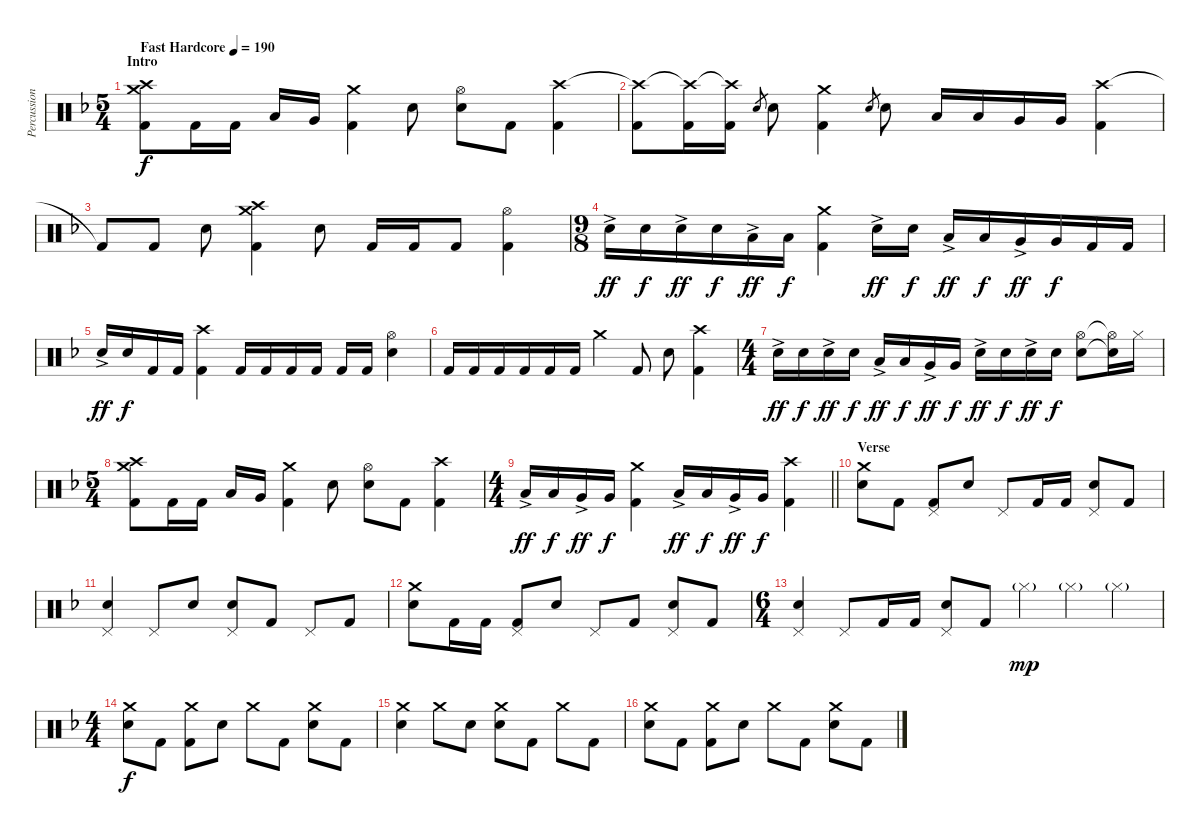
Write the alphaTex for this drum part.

\track ("Percussion" "Percussion") {instrument percussion}
\staff {score}
\articulation defaults
\ts (5 4)
\section ("" "Intro")
\tempo (190 "Fast Hardcore")
\clef neutral
\ks f
("Crash medium (hit)" "Crash high (hit)" "Kick (hit) 2").8{dy f} "Kick (hit) 2".16 "Kick (hit) 2".16 "Low Tom (hit)".16 "Very Low Tom (hit)".16 ("Crash medium (hit)" "Kick (hit) 2").4 "Electric Snare (hit)".8 ("Hi-Hat (open)" "Electric Snare (hit)").8 "Kick (hit) 2".8 ("Crash high (hit)" "Kick (hit) 2").4 |
("Crash high (hit)"{t} "Kick (hit) 2").8 ("Crash high (hit)"{t} "Kick (hit) 2").16 ("Crash high (hit)"{t} "Kick (hit) 2").16 "Electric Snare (hit)".8{gr} "Electric Snare (hit)".8 ("Crash medium (hit)" "Kick (hit) 2").4 "Electric Snare (hit)".8{gr} "Electric Snare (hit)".8 "Low Tom (hit)".16 "Low Tom (hit)".16 "Very Low Tom (hit)".16 "Very Low Tom (hit)".16 ("Crash high (hit)" "Kick (hit) 2").4 |
"Kick (hit) 2"{t}.8 "Kick (hit) 2".8 "Electric Snare (hit)".8 ("Crash medium (hit)" "Crash high (hit)" "Kick (hit) 2").4 "Electric Snare (hit)".8 "Kick (hit) 2".16 "Kick (hit) 2".16 "Kick (hit) 2".8 ("Hi-Hat (open)" "Kick (hit) 2").4 |
\ts (9 8)
"Electric Snare (hit)"{ac}.16{dy ff} "Electric Snare (hit)".16{dy f} "Electric Snare (hit)"{ac}.16{dy ff} "Electric Snare (hit)".16{dy f} "Low Tom (hit)"{ac}.16{dy ff} "Low Tom (hit)".16{dy f} ("Crash medium (hit)" "Kick (hit) 2").4 "Electric Snare (hit)"{ac}.16{dy ff} "Electric Snare (hit)".16{dy f} "Low Tom (hit)"{ac}.16{dy ff} "Low Tom (hit)".16{dy f} "Very Low Tom (hit)"{ac}.16{dy ff} "Very Low Tom (hit)".16{dy f} "Kick (hit) 2".16 "Kick (hit) 2".16 |
"Electric Snare (hit)"{ac}.16{dy ff} "Electric Snare (hit)".16{dy f} "Kick (hit) 2".16 "Kick (hit) 2".16 ("Crash high (hit)" "Kick (hit) 2").4 "Kick (hit) 2".16 "Kick (hit) 2".16 "Kick (hit) 2".16 "Kick (hit) 2".16 "Kick (hit) 2".16 "Kick (hit) 2".16 ("Hi-Hat (open)" "Electric Snare (hit)").4 |
"Kick (hit) 2".16 "Kick (hit) 2".16 "Kick (hit) 2".16 "Kick (hit) 2".16 "Kick (hit) 2".16 "Kick (hit) 2".16 "Crash medium (hit)".4 "Kick (hit) 2".8 "Electric Snare (hit)".8 ("Crash high (hit)" "Kick (hit) 2").4 |
\ts (4 4)
"Electric Snare (hit)"{ac}.16{dy ff} "Electric Snare (hit)".16{dy f} "Electric Snare (hit)"{ac}.16{dy ff} "Electric Snare (hit)".16{dy f} "Low Tom (hit)"{ac}.16{dy ff} "Low Tom (hit)".16{dy f} "Very Low Tom (hit)"{ac}.16{dy ff} "Very Low Tom (hit)".16{dy f} "Electric Snare (hit)"{ac}.16{dy ff} "Electric Snare (hit)".16{dy f} "Electric Snare (hit)"{ac}.16{dy ff} "Electric Snare (hit)".16{dy f} ("Hi-Hat (open)" "Electric Snare (hit)").8 ("Hi-Hat (open)"{t} "Electric Snare (hit)"{t}).16 "Hi-Hat (closed)".16 |
\ts (5 4)
("Crash medium (hit)" "Crash high (hit)" "Kick (hit) 2").8 "Kick (hit) 2".16 "Kick (hit) 2".16 "Low Tom (hit)".16 "Very Low Tom (hit)".16 ("Crash medium (hit)" "Kick (hit) 2").4 "Electric Snare (hit)".8 ("Hi-Hat (open)" "Electric Snare (hit)").8 "Kick (hit) 2".8 ("Crash high (hit)" "Kick (hit) 2").4 |
\ts (4 4)
\barLineRight lightlight "Low Tom (hit)"{ac}.16{dy ff} "Low Tom (hit)".16{dy f} "Very Low Tom (hit)"{ac}.16{dy ff} "Very Low Tom (hit)".16{dy f}
("Crash medium (hit)" "Kick (hit) 2").4 "Low Tom (hit)"{ac}.16{dy ff} "Low Tom (hit)".16{dy f} "Very Low Tom (hit)"{ac}.16{dy ff} "Very Low Tom (hit)".16{dy f} ("Crash high (hit)" "Kick (hit) 2").4 |
\section ("" "Verse")
("Crash medium (hit)" "Electric Snare (hit)").8 "Kick (hit) 2".8 ("Pedal Hi-Hat (hit)" "Kick (hit) 2").8 "Electric Snare (hit)".8 "Pedal Hi-Hat (hit)".8 "Kick (hit) 2".16 "Kick (hit) 2".16 ("Pedal Hi-Hat (hit)" "Electric Snare (hit)").8 "Kick (hit) 2".8 |
("Pedal Hi-Hat (hit)" "Electric Snare (hit)").4 "Pedal Hi-Hat (hit)".8 "Electric Snare (hit)".8 ("Pedal Hi-Hat (hit)" "Electric Snare (hit)").8 "Kick (hit) 2".8 "Pedal Hi-Hat (hit)".8 "Kick (hit) 2".8 |
("Crash medium (hit)" "Electric Snare (hit)").8 "Kick (hit) 2".16 "Kick (hit) 2".16 ("Pedal Hi-Hat (hit)" "Kick (hit) 2").8 "Electric Snare (hit)".8 "Pedal Hi-Hat (hit)".8 "Kick (hit) 2".8 ("Pedal Hi-Hat (hit)" "Electric Snare (hit)").8 "Kick (hit) 2".8 |
\ts (6 4)
("Pedal Hi-Hat (hit)" "Electric Snare (hit)").4 "Pedal Hi-Hat (hit)".8 "Kick (hit) 2".16 "Kick (hit) 2".16 ("Pedal Hi-Hat (hit)" "Electric Snare (hit)").8 "Kick (hit) 2".8 "Hi-Hat (closed)"{g}.4{dy mp} "Hi-Hat (closed)"{g}.4 "Hi-Hat (closed)"{g}.4 |
\ts (4 4)
("Crash medium (hit)" "Electric Snare (hit)").8{dy f} "Kick (hit) 2".8 ("Crash medium (hit)" "Kick (hit) 2").8 "Electric Snare (hit)".8 "Crash medium (hit)".8 "Kick (hit) 2".8 ("Crash medium (hit)" "Electric Snare (hit)").8 "Kick (hit) 2".8 |
("Crash medium (hit)" "Electric Snare (hit)").4 "Crash medium (hit)".8 "Electric Snare (hit)".8 ("Crash medium (hit)" "Electric Snare (hit)").8 "Kick (hit) 2".8 "Crash medium (hit)".8 "Kick (hit) 2".8 |
("Crash medium (hit)" "Electric Snare (hit)").8 "Kick (hit) 2".8 ("Crash medium (hit)" "Kick (hit) 2").8 "Electric Snare (hit)".8 "Crash medium (hit)".8 "Kick (hit) 2".8 ("Crash medium (hit)" "Electric Snare (hit)").8 "Kick (hit) 2".8
